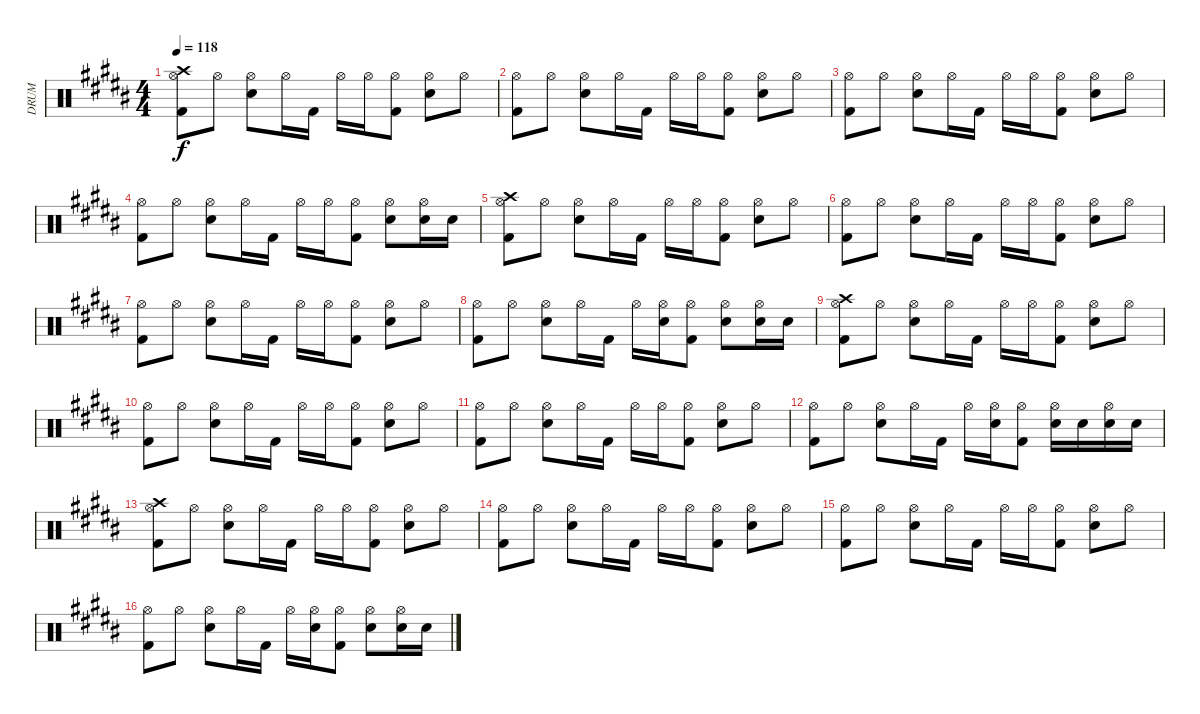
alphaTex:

\track ("DRUM" "DRUM") {instrument percussion}
\staff {score}
\articulation defaults
\ts (4 4)
\tempo 118
\clef neutral
\ks b
("Crash high (hit)" "Hi-Hat (open)" "Kick (hit) 2").8{dy f} "Hi-Hat (open)".8 ("Hi-Hat (open)" "Electric Snare (hit)").8 "Hi-Hat (open)".16 "Kick (hit) 2".16 "Hi-Hat (open)".16 "Hi-Hat (open)".16 ("Hi-Hat (open)" "Kick (hit) 2").8 ("Hi-Hat (open)" "Electric Snare (hit)").8 "Hi-Hat (open)".8 |
("Hi-Hat (open)" "Kick (hit) 2").8 "Hi-Hat (open)".8 ("Hi-Hat (open)" "Electric Snare (hit)").8 "Hi-Hat (open)".16 "Kick (hit) 2".16 "Hi-Hat (open)".16 "Hi-Hat (open)".16 ("Hi-Hat (open)" "Kick (hit) 2").8 ("Hi-Hat (open)" "Electric Snare (hit)").8 "Hi-Hat (open)".8 |
("Hi-Hat (open)" "Kick (hit) 2").8 "Hi-Hat (open)".8 ("Hi-Hat (open)" "Electric Snare (hit)").8 "Hi-Hat (open)".16 "Kick (hit) 2".16 "Hi-Hat (open)".16 "Hi-Hat (open)".16 ("Hi-Hat (open)" "Kick (hit) 2").8 ("Hi-Hat (open)" "Electric Snare (hit)").8 "Hi-Hat (open)".8 |
("Hi-Hat (open)" "Kick (hit) 2").8 "Hi-Hat (open)".8 ("Hi-Hat (open)" "Electric Snare (hit)").8 "Hi-Hat (open)".16 "Kick (hit) 2".16 "Hi-Hat (open)".16 "Hi-Hat (open)".16 ("Hi-Hat (open)" "Kick (hit) 2").8 ("Hi-Hat (open)" "Electric Snare (hit)").8 ("Hi-Hat (open)" "Electric Snare (hit)").16 "Electric Snare (hit)".16 |
("Crash high (hit)" "Hi-Hat (open)" "Kick (hit) 2").8 "Hi-Hat (open)".8 ("Hi-Hat (open)" "Electric Snare (hit)").8 "Hi-Hat (open)".16 "Kick (hit) 2".16 "Hi-Hat (open)".16 "Hi-Hat (open)".16 ("Hi-Hat (open)" "Kick (hit) 2").8 ("Hi-Hat (open)" "Electric Snare (hit)").8 "Hi-Hat (open)".8 |
("Hi-Hat (open)" "Kick (hit) 2").8 "Hi-Hat (open)".8 ("Hi-Hat (open)" "Electric Snare (hit)").8 "Hi-Hat (open)".16 "Kick (hit) 2".16 "Hi-Hat (open)".16 "Hi-Hat (open)".16 ("Hi-Hat (open)" "Kick (hit) 2").8 ("Hi-Hat (open)" "Electric Snare (hit)").8 "Hi-Hat (open)".8 |
("Hi-Hat (open)" "Kick (hit) 2").8 "Hi-Hat (open)".8 ("Hi-Hat (open)" "Electric Snare (hit)").8 "Hi-Hat (open)".16 "Kick (hit) 2".16 "Hi-Hat (open)".16 "Hi-Hat (open)".16 ("Hi-Hat (open)" "Kick (hit) 2").8 ("Hi-Hat (open)" "Electric Snare (hit)").8 "Hi-Hat (open)".8 |
("Hi-Hat (open)" "Kick (hit) 2").8 "Hi-Hat (open)".8 ("Hi-Hat (open)" "Electric Snare (hit)").8 "Hi-Hat (open)".16 "Kick (hit) 2".16 "Hi-Hat (open)".16 ("Hi-Hat (open)" "Electric Snare (hit)").16 ("Hi-Hat (open)" "Kick (hit) 2").8 ("Hi-Hat (open)" "Electric Snare (hit)").8 ("Hi-Hat (open)" "Electric Snare (hit)").16 "Electric Snare (hit)".16 |
("Crash high (hit)" "Hi-Hat (open)" "Kick (hit) 2").8 "Hi-Hat (open)".8 ("Hi-Hat (open)" "Electric Snare (hit)").8 "Hi-Hat (open)".16 "Kick (hit) 2".16 "Hi-Hat (open)".16 "Hi-Hat (open)".16 ("Hi-Hat (open)" "Kick (hit) 2").8 ("Hi-Hat (open)" "Electric Snare (hit)").8 "Hi-Hat (open)".8 |
("Hi-Hat (open)" "Kick (hit) 2").8 "Hi-Hat (open)".8 ("Hi-Hat (open)" "Electric Snare (hit)").8 "Hi-Hat (open)".16 "Kick (hit) 2".16 "Hi-Hat (open)".16 "Hi-Hat (open)".16 ("Hi-Hat (open)" "Kick (hit) 2").8 ("Hi-Hat (open)" "Electric Snare (hit)").8 "Hi-Hat (open)".8 |
("Hi-Hat (open)" "Kick (hit) 2").8 "Hi-Hat (open)".8 ("Hi-Hat (open)" "Electric Snare (hit)").8 "Hi-Hat (open)".16 "Kick (hit) 2".16 "Hi-Hat (open)".16 "Hi-Hat (open)".16 ("Hi-Hat (open)" "Kick (hit) 2").8 ("Hi-Hat (open)" "Electric Snare (hit)").8 "Hi-Hat (open)".8 |
("Hi-Hat (open)" "Kick (hit) 2").8 "Hi-Hat (open)".8 ("Hi-Hat (open)" "Electric Snare (hit)").8 "Hi-Hat (open)".16 "Kick (hit) 2".16 "Hi-Hat (open)".16 ("Hi-Hat (open)" "Electric Snare (hit)").16 ("Hi-Hat (open)" "Kick (hit) 2").8 ("Hi-Hat (open)" "Electric Snare (hit)").16 "Electric Snare (hit)".16 ("Hi-Hat (open)" "Electric Snare (hit)").16 "Electric Snare (hit)".16 |
("Crash high (hit)" "Hi-Hat (open)" "Kick (hit) 2").8 "Hi-Hat (open)".8 ("Hi-Hat (open)" "Electric Snare (hit)").8 "Hi-Hat (open)".16 "Kick (hit) 2".16 "Hi-Hat (open)".16 "Hi-Hat (open)".16 ("Hi-Hat (open)" "Kick (hit) 2").8 ("Hi-Hat (open)" "Electric Snare (hit)").8 "Hi-Hat (open)".8 |
("Hi-Hat (open)" "Kick (hit) 2").8 "Hi-Hat (open)".8 ("Hi-Hat (open)" "Electric Snare (hit)").8 "Hi-Hat (open)".16 "Kick (hit) 2".16 "Hi-Hat (open)".16 "Hi-Hat (open)".16 ("Hi-Hat (open)" "Kick (hit) 2").8 ("Hi-Hat (open)" "Electric Snare (hit)").8 "Hi-Hat (open)".8 |
("Hi-Hat (open)" "Kick (hit) 2").8 "Hi-Hat (open)".8 ("Hi-Hat (open)" "Electric Snare (hit)").8 "Hi-Hat (open)".16 "Kick (hit) 2".16 "Hi-Hat (open)".16 "Hi-Hat (open)".16 ("Hi-Hat (open)" "Kick (hit) 2").8 ("Hi-Hat (open)" "Electric Snare (hit)").8 "Hi-Hat (open)".8 |
("Hi-Hat (open)" "Kick (hit) 2").8 "Hi-Hat (open)".8 ("Hi-Hat (open)" "Electric Snare (hit)").8 "Hi-Hat (open)".16 "Kick (hit) 2".16 "Hi-Hat (open)".16 ("Hi-Hat (open)" "Electric Snare (hit)").16 ("Hi-Hat (open)" "Kick (hit) 2").8 ("Hi-Hat (open)" "Electric Snare (hit)").8 ("Hi-Hat (open)" "Electric Snare (hit)").16 "Electric Snare (hit)".16
